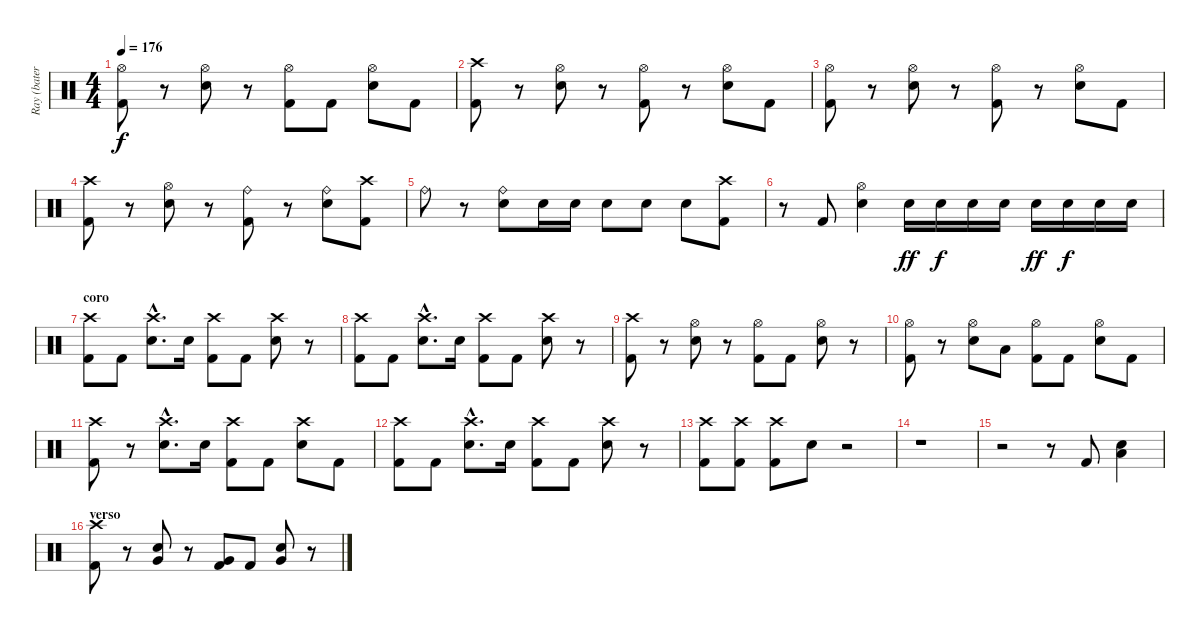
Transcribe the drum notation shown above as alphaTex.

\track ("Ray (batería)" "Ray (bater") {instrument percussion}
\staff {score}
\articulation defaults
\ts (4 4)
\tempo 176
\clef neutral
\ks c
("Hi-Hat (open)" "Kick (hit) 2").8{dy f} r.8 ("Hi-Hat (open)" "Snare (hit) 2").8 r.8 ("Hi-Hat (open)" "Kick (hit) 2").8 "Kick (hit) 2".8 ("Hi-Hat (open)" "Snare (hit) 2").8 "Kick (hit) 2".8 |
("Crash high (hit)" "Kick (hit) 2").8 r.8 ("Hi-Hat (open)" "Snare (hit) 2").8 r.8 ("Hi-Hat (open)" "Kick (hit) 2").8 r.8 ("Hi-Hat (open)" "Snare (hit) 2").8 "Kick (hit) 2".8 |
("Hi-Hat (open)" "Kick (hit) 2").8 r.8 ("Hi-Hat (open)" "Snare (hit) 2").8 r.8 ("Hi-Hat (open)" "Kick (hit) 2").8 r.8 ("Hi-Hat (open)" "Snare (hit) 2").8 "Kick (hit) 2".8 |
("Crash high (hit)" "Kick (hit) 2").8 r.8 ("Hi-Hat (open)" "Snare (hit) 2").8 r.8 ("Ride (bell)" "Kick (hit) 2").8 r.8 ("Ride (bell)" "Snare (hit) 2").8 ("Crash high (hit)" "Kick (hit) 2").8 |
"Ride (bell)".8 r.8 ("Ride (bell)" "Snare (hit) 2").8 "Snare (hit) 2".16 "Snare (hit) 2".16 "Snare (hit) 2".8 "Snare (hit) 2".8 "Snare (hit) 2".8 ("Crash high (hit)" "Kick (hit) 2").8 |
r.8 "Kick (hit) 2".8 ("Hi-Hat (open)" "Snare (hit) 2").4 "Snare (hit) 2".16{dy ff} "Snare (hit) 2".16{dy f} "Snare (hit) 2".16 "Snare (hit) 2".16 "Snare (hit) 2".16{dy ff} "Snare (hit) 2".16{dy f} "Snare (hit) 2".16 "Snare (hit) 2".16 |
\section ("" "coro")
("Crash high (hit)" "Kick (hit) 2").8 "Kick (hit) 2".8 ("Crash high (hit)"{hac} "Snare (hit) 2"{hac}).8{d} "Snare (hit) 2".16 ("Crash high (hit)" "Kick (hit) 2").8 "Kick (hit) 2".8 ("Crash high (hit)" "Snare (hit) 2").8 r.8 |
("Crash high (hit)" "Kick (hit) 2").8 "Kick (hit) 2".8 ("Crash high (hit)"{hac} "Snare (hit) 2"{hac}).8{d} "Snare (hit) 2".16 ("Crash high (hit)" "Kick (hit) 2").8 "Kick (hit) 2".8 ("Crash high (hit)" "Snare (hit) 2").8 r.8 |
("Crash high (hit)" "Kick (hit) 2").8 r.8 ("Hi-Hat (open)" "Snare (hit) 2").8 r.8 ("Hi-Hat (open)" "Kick (hit) 2").8 "Kick (hit) 2".8 ("Hi-Hat (open)" "Snare (hit) 2").8 r.8 |
("Hi-Hat (open)" "Kick (hit) 2").8 r.8 ("Hi-Hat (open)" "Snare (hit) 2").8 "Low Tom (hit)".8 ("Hi-Hat (open)" "Kick (hit) 2").8 "Kick (hit) 2".8 ("Hi-Hat (open)" "Snare (hit) 2").8 "Kick (hit) 2".8 |
("Crash high (hit)" "Kick (hit) 2").8 r.8 ("Crash high (hit)"{hac} "Snare (hit) 2"{hac}).8{d} "Snare (hit) 2".16 ("Crash high (hit)" "Kick (hit) 2").8 "Kick (hit) 2".8 ("Crash high (hit)" "Snare (hit) 2").8 "Kick (hit) 2".8 |
("Crash high (hit)" "Kick (hit) 2").8 "Kick (hit) 2".8 ("Crash high (hit)"{hac} "Snare (hit) 2"{hac}).8{d} "Snare (hit) 2".16 ("Crash high (hit)" "Kick (hit) 2").8 "Kick (hit) 2".8 ("Crash high (hit)" "Snare (hit) 2").8 r.8 |
("Crash high (hit)" "Kick (hit) 2").8 ("Crash high (hit)" "Kick (hit) 2").8 ("Crash high (hit)" "Kick (hit) 2").8 "Snare (hit) 2".8 r.2 |
r.1 |
r.2 r.8 "Kick (hit) 2".8 ("Snare (hit) 2" "Low Floor Tom (hit)").4 |
\section ("" "verso")
("Crash high (hit)" "Kick (hit) 2").8 r.8 ("Snare (hit) 2" "Very Low Tom (hit)").8 r.8 ("Very Low Tom (hit)" "Kick (hit) 2").8 "Kick (hit) 2".8 ("Snare (hit) 2" "Very Low Tom (hit)").8 r.8
